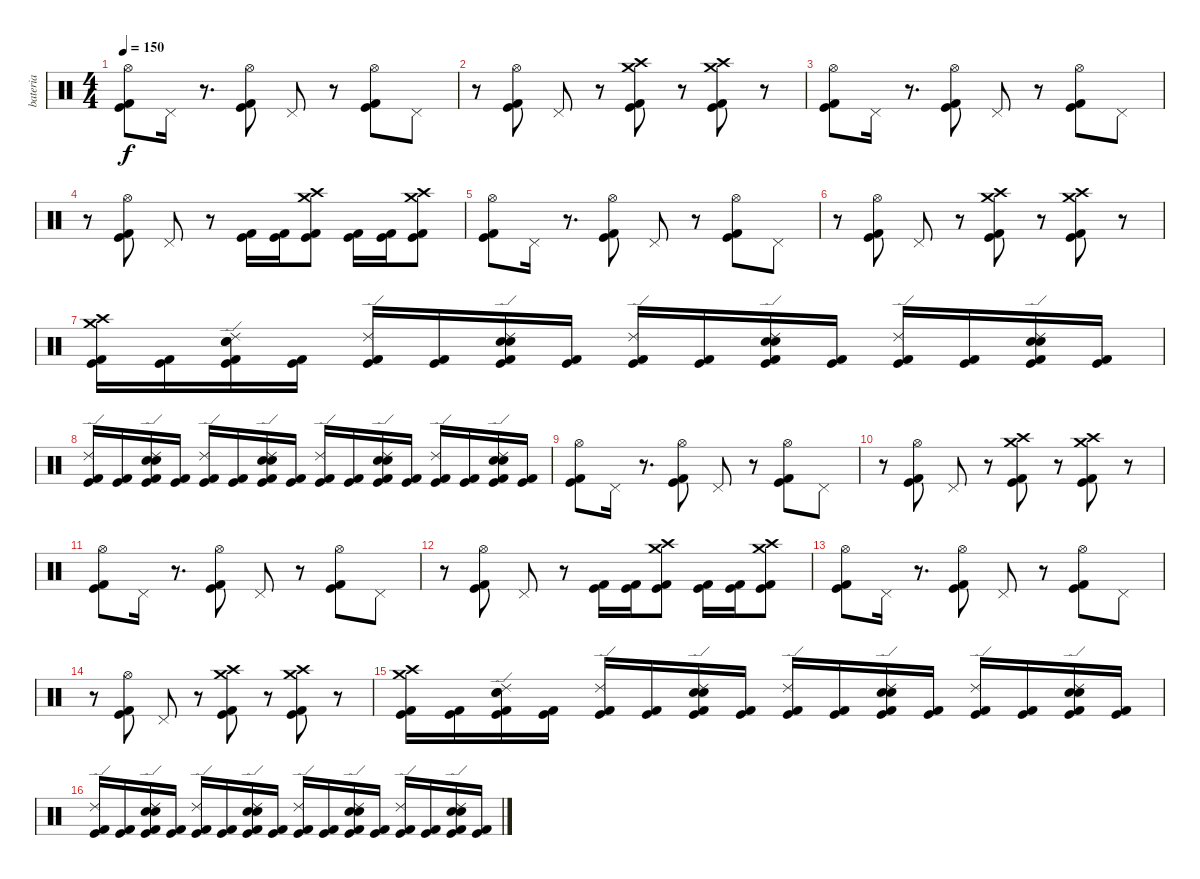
\track ("bateria" "bateria") {instrument percussion}
\staff {score}
\articulation defaults
\ts (4 4)
\tempo 150
\clef neutral
\ks c
("Kick (hit) 2" "Kick (hit)" "Hi-Hat (open)").8{dy f} "Pedal Hi-Hat (hit)".16 r.8{d} ("Kick (hit) 2" "Kick (hit)" "Hi-Hat (open)").8 "Pedal Hi-Hat (hit)".8 r.8 ("Kick (hit)" "Hi-Hat (open)" "Kick (hit) 2").8 "Pedal Hi-Hat (hit)".8 |
r.8 ("Hi-Hat (open)" "Kick (hit)" "Kick (hit) 2").8 "Pedal Hi-Hat (hit)".8 r.8 ("Crash high (hit)" "Crash medium (hit)" "Kick (hit)" "Kick (hit) 2").8 r.8 ("Crash high (hit)" "Crash medium (hit)" "Kick (hit) 2" "Kick (hit)").8 r.8 |
("Kick (hit) 2" "Kick (hit)" "Hi-Hat (open)").8 "Pedal Hi-Hat (hit)".16 r.8{d} ("Kick (hit) 2" "Kick (hit)" "Hi-Hat (open)").8 "Pedal Hi-Hat (hit)".8 r.8 ("Kick (hit)" "Hi-Hat (open)" "Kick (hit) 2").8 "Pedal Hi-Hat (hit)".8 |
r.8 ("Hi-Hat (open)" "Kick (hit)" "Kick (hit) 2").8 "Pedal Hi-Hat (hit)".8 r.8 ("Kick (hit) 2" "Kick (hit)").16 ("Kick (hit) 2" "Kick (hit)").16 ("Crash medium (hit)" "Crash high (hit)" "Kick (hit) 2" "Kick (hit)").8 ("Kick (hit) 2" "Kick (hit)").16 ("Kick (hit) 2" "Kick (hit)").16 ("Crash medium (hit)" "Crash high (hit)" "Kick (hit)" "Kick (hit) 2").8 |
("Kick (hit) 2" "Kick (hit)" "Hi-Hat (open)").8 "Pedal Hi-Hat (hit)".16 r.8{d} ("Kick (hit) 2" "Kick (hit)" "Hi-Hat (open)").8 "Pedal Hi-Hat (hit)".8 r.8 ("Kick (hit)" "Hi-Hat (open)" "Kick (hit) 2").8 "Pedal Hi-Hat (hit)".8 |
r.8 ("Hi-Hat (open)" "Kick (hit)" "Kick (hit) 2").8 "Pedal Hi-Hat (hit)".8 r.8 ("Crash high (hit)" "Crash medium (hit)" "Kick (hit)" "Kick (hit) 2").8 r.8 ("Crash high (hit)" "Crash medium (hit)" "Kick (hit) 2" "Kick (hit)").8 r.8 |
("Crash high (hit)" "Crash medium (hit)" "Kick (hit) 2" "Kick (hit)").16 ("Kick (hit) 2" "Kick (hit)").16 ("Ride (edge) 2" "Electric Snare (hit)" "Snare (hit) 2" "Kick (hit) 2" "Kick (hit)").16 ("Kick (hit) 2" "Kick (hit)").16 ("Ride (edge) 2" "Kick (hit) 2" "Kick (hit)").16 ("Kick (hit) 2" "Kick (hit)").16 ("Ride (edge) 2" "Electric Snare (hit)" "Snare (hit) 2" "Kick (hit) 2" "Kick (hit)").16 ("Kick (hit) 2" "Kick (hit)").16 ("Ride (edge) 2" "Kick (hit) 2" "Kick (hit)").16 ("Kick (hit) 2" "Kick (hit)").16 ("Ride (edge) 2" "Electric Snare (hit)" "Snare (hit) 2" "Kick (hit) 2" "Kick (hit)").16 ("Kick (hit) 2" "Kick (hit)").16 ("Ride (edge) 2" "Kick (hit) 2" "Kick (hit)").16 ("Kick (hit) 2" "Kick (hit)").16 ("Ride (edge) 2" "Electric Snare (hit)" "Snare (hit) 2" "Kick (hit) 2" "Kick (hit)").16 ("Kick (hit) 2" "Kick (hit)").16 |
("Ride (edge) 2" "Kick (hit) 2" "Kick (hit)").16 ("Kick (hit) 2" "Kick (hit)").16 ("Ride (edge) 2" "Electric Snare (hit)" "Snare (hit) 2" "Kick (hit) 2" "Kick (hit)").16 ("Kick (hit) 2" "Kick (hit)").16 ("Ride (edge) 2" "Kick (hit) 2" "Kick (hit)").16 ("Kick (hit) 2" "Kick (hit)").16 ("Ride (edge) 2" "Electric Snare (hit)" "Snare (hit) 2" "Kick (hit) 2" "Kick (hit)").16 ("Kick (hit) 2" "Kick (hit)").16 ("Ride (edge) 2" "Kick (hit) 2" "Kick (hit)").16 ("Kick (hit) 2" "Kick (hit)").16 ("Ride (edge) 2" "Electric Snare (hit)" "Snare (hit) 2" "Kick (hit) 2" "Kick (hit)").16 ("Kick (hit) 2" "Kick (hit)").16 ("Ride (edge) 2" "Kick (hit) 2" "Kick (hit)").16 ("Kick (hit) 2" "Kick (hit)").16 ("Ride (edge) 2" "Electric Snare (hit)" "Snare (hit) 2" "Kick (hit) 2" "Kick (hit)").16 ("Kick (hit) 2" "Kick (hit)").16 |
("Kick (hit) 2" "Kick (hit)" "Hi-Hat (open)").8 "Pedal Hi-Hat (hit)".16 r.8{d} ("Kick (hit) 2" "Kick (hit)" "Hi-Hat (open)").8 "Pedal Hi-Hat (hit)".8 r.8 ("Kick (hit)" "Hi-Hat (open)" "Kick (hit) 2").8 "Pedal Hi-Hat (hit)".8 |
r.8 ("Hi-Hat (open)" "Kick (hit)" "Kick (hit) 2").8 "Pedal Hi-Hat (hit)".8 r.8 ("Crash high (hit)" "Crash medium (hit)" "Kick (hit)" "Kick (hit) 2").8 r.8 ("Crash high (hit)" "Crash medium (hit)" "Kick (hit) 2" "Kick (hit)").8 r.8 |
("Kick (hit) 2" "Kick (hit)" "Hi-Hat (open)").8 "Pedal Hi-Hat (hit)".16 r.8{d} ("Kick (hit) 2" "Kick (hit)" "Hi-Hat (open)").8 "Pedal Hi-Hat (hit)".8 r.8 ("Kick (hit)" "Hi-Hat (open)" "Kick (hit) 2").8 "Pedal Hi-Hat (hit)".8 |
r.8 ("Hi-Hat (open)" "Kick (hit)" "Kick (hit) 2").8 "Pedal Hi-Hat (hit)".8 r.8 ("Kick (hit) 2" "Kick (hit)").16 ("Kick (hit) 2" "Kick (hit)").16 ("Crash medium (hit)" "Crash high (hit)" "Kick (hit) 2" "Kick (hit)").8 ("Kick (hit) 2" "Kick (hit)").16 ("Kick (hit) 2" "Kick (hit)").16 ("Crash medium (hit)" "Crash high (hit)" "Kick (hit)" "Kick (hit) 2").8 |
("Kick (hit) 2" "Kick (hit)" "Hi-Hat (open)").8 "Pedal Hi-Hat (hit)".16 r.8{d} ("Kick (hit) 2" "Kick (hit)" "Hi-Hat (open)").8 "Pedal Hi-Hat (hit)".8 r.8 ("Kick (hit)" "Hi-Hat (open)" "Kick (hit) 2").8 "Pedal Hi-Hat (hit)".8 |
r.8 ("Hi-Hat (open)" "Kick (hit)" "Kick (hit) 2").8 "Pedal Hi-Hat (hit)".8 r.8 ("Crash high (hit)" "Crash medium (hit)" "Kick (hit)" "Kick (hit) 2").8 r.8 ("Crash high (hit)" "Crash medium (hit)" "Kick (hit) 2" "Kick (hit)").8 r.8 |
("Crash high (hit)" "Crash medium (hit)" "Kick (hit) 2" "Kick (hit)").16 ("Kick (hit) 2" "Kick (hit)").16 ("Ride (edge) 2" "Electric Snare (hit)" "Snare (hit) 2" "Kick (hit) 2" "Kick (hit)").16 ("Kick (hit) 2" "Kick (hit)").16 ("Ride (edge) 2" "Kick (hit) 2" "Kick (hit)").16 ("Kick (hit) 2" "Kick (hit)").16 ("Ride (edge) 2" "Electric Snare (hit)" "Snare (hit) 2" "Kick (hit) 2" "Kick (hit)").16 ("Kick (hit) 2" "Kick (hit)").16 ("Ride (edge) 2" "Kick (hit) 2" "Kick (hit)").16 ("Kick (hit) 2" "Kick (hit)").16 ("Ride (edge) 2" "Electric Snare (hit)" "Snare (hit) 2" "Kick (hit) 2" "Kick (hit)").16 ("Kick (hit) 2" "Kick (hit)").16 ("Ride (edge) 2" "Kick (hit) 2" "Kick (hit)").16 ("Kick (hit) 2" "Kick (hit)").16 ("Ride (edge) 2" "Electric Snare (hit)" "Snare (hit) 2" "Kick (hit) 2" "Kick (hit)").16 ("Kick (hit) 2" "Kick (hit)").16 |
("Ride (edge) 2" "Kick (hit) 2" "Kick (hit)").16 ("Kick (hit) 2" "Kick (hit)").16 ("Ride (edge) 2" "Electric Snare (hit)" "Snare (hit) 2" "Kick (hit) 2" "Kick (hit)").16 ("Kick (hit) 2" "Kick (hit)").16 ("Ride (edge) 2" "Kick (hit) 2" "Kick (hit)").16 ("Kick (hit) 2" "Kick (hit)").16 ("Ride (edge) 2" "Electric Snare (hit)" "Snare (hit) 2" "Kick (hit) 2" "Kick (hit)").16 ("Kick (hit) 2" "Kick (hit)").16 ("Ride (edge) 2" "Kick (hit) 2" "Kick (hit)").16 ("Kick (hit) 2" "Kick (hit)").16 ("Ride (edge) 2" "Electric Snare (hit)" "Snare (hit) 2" "Kick (hit) 2" "Kick (hit)").16 ("Kick (hit) 2" "Kick (hit)").16 ("Ride (edge) 2" "Kick (hit) 2" "Kick (hit)").16 ("Kick (hit) 2" "Kick (hit)").16 ("Ride (edge) 2" "Electric Snare (hit)" "Snare (hit) 2" "Kick (hit) 2" "Kick (hit)").16 ("Kick (hit) 2" "Kick (hit)").16
